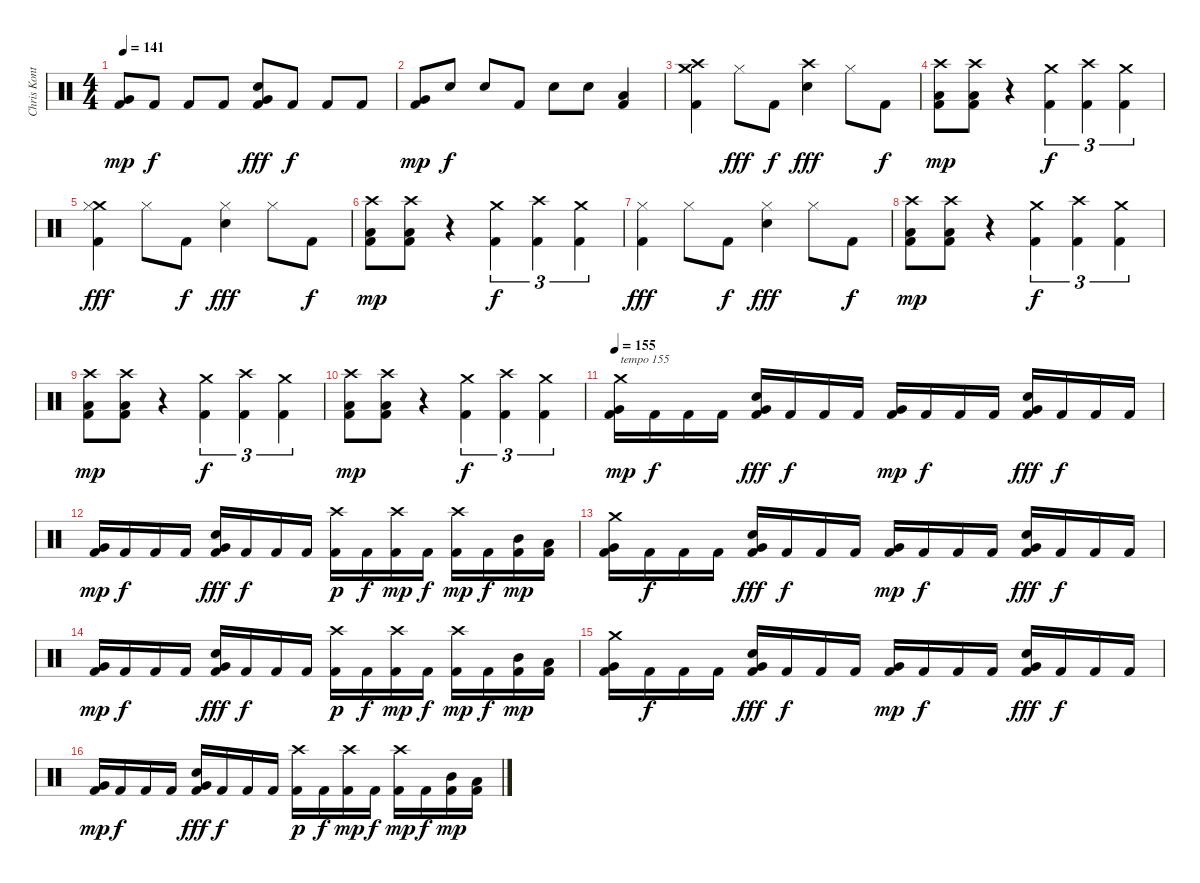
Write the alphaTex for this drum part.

\track ("Chris Kontos" "Chris Kont") {instrument percussion}
\staff {score}
\articulation defaults
\ts (4 4)
\tempo 141
\clef neutral
\ks c
("Very Low Tom (hit)" "Kick (hit) 2").8{dy mp} "Kick (hit) 2".8{dy f} "Kick (hit) 2".8 "Kick (hit) 2".8 ("Very Low Tom (hit)" "Electric Snare (hit)" "Kick (hit) 2").8{dy fff} "Kick (hit) 2".8{dy f} "Kick (hit) 2".8 "Kick (hit) 2".8 |
("Very Low Tom (hit)" "Kick (hit) 2").8{dy mp} "Electric Snare (hit)".8{dy f} "Electric Snare (hit)".8 "Kick (hit) 2".8 "Electric Snare (hit)".8 "Electric Snare (hit)".8 ("Low Tom (hit)" "Kick (hit) 2").4 |
("Crash medium (hit)" "Crash high (hit)" "Kick (hit) 2").4 "Hi-Hat (closed)".8{dy fff} "Kick (hit) 2".8{dy f} ("Crash high (hit)" "Electric Snare (hit)").4{dy fff} "Hi-Hat (closed)".8 "Kick (hit) 2".8{dy f} |
("Crash high (hit)" "Low Tom (hit)" "Kick (hit) 2").8{dy mp} ("Crash high (hit)" "Low Tom (hit)" "Kick (hit) 2").8 r.4 ("Crash medium (hit)" "Kick (hit) 2").4{tu (3 2) dy f} ("Crash high (hit)" "Kick (hit) 2").4{tu (3 2)} ("Crash medium (hit)" "Kick (hit) 2").4{tu (3 2)} |
("Crash medium (hit)" "Hi-Hat (closed)" "Kick (hit) 2").4{dy fff} "Hi-Hat (closed)".8 "Kick (hit) 2".8{dy f} ("Electric Snare (hit)" "Hi-Hat (closed)").4{dy fff} "Hi-Hat (closed)".8 "Kick (hit) 2".8{dy f} |
("Crash high (hit)" "Low Tom (hit)" "Kick (hit) 2").8{dy mp} ("Crash high (hit)" "Low Tom (hit)" "Kick (hit) 2").8 r.4 ("Crash medium (hit)" "Kick (hit) 2").4{tu (3 2) dy f} ("Crash high (hit)" "Kick (hit) 2").4{tu (3 2)} ("Crash medium (hit)" "Kick (hit) 2").4{tu (3 2)} |
("Hi-Hat (closed)" "Kick (hit) 2").4{dy fff} "Hi-Hat (closed)".8 "Kick (hit) 2".8{dy f} ("Electric Snare (hit)" "Hi-Hat (closed)").4{dy fff} "Hi-Hat (closed)".8 "Kick (hit) 2".8{dy f} |
("Crash high (hit)" "Low Tom (hit)" "Kick (hit) 2").8{dy mp} ("Crash high (hit)" "Low Tom (hit)" "Kick (hit) 2").8 r.4 ("Crash medium (hit)" "Kick (hit) 2").4{tu (3 2) dy f} ("Crash high (hit)" "Kick (hit) 2").4{tu (3 2)} ("Crash medium (hit)" "Kick (hit) 2").4{tu (3 2)} |
("Crash high (hit)" "Low Tom (hit)" "Kick (hit) 2").8{dy mp} ("Crash high (hit)" "Low Tom (hit)" "Kick (hit) 2").8 r.4 ("Crash medium (hit)" "Kick (hit) 2").4{tu (3 2) dy f} ("Crash high (hit)" "Kick (hit) 2").4{tu (3 2)} ("Crash medium (hit)" "Kick (hit) 2").4{tu (3 2)} |
("Crash high (hit)" "Low Tom (hit)" "Kick (hit) 2").8{dy mp} ("Crash high (hit)" "Low Tom (hit)" "Kick (hit) 2").8 r.4 ("Crash medium (hit)" "Kick (hit) 2").4{tu (3 2) dy f} ("Crash high (hit)" "Kick (hit) 2").4{tu (3 2)} ("Crash medium (hit)" "Kick (hit) 2").4{tu (3 2)} |
\tempo 155
("Crash medium (hit)" "Very Low Tom (hit)" "Kick (hit) 2").16{txt "tempo 155" dy mp} "Kick (hit) 2".16{dy f} "Kick (hit) 2".16 "Kick (hit) 2".16 ("Very Low Tom (hit)" "Electric Snare (hit)" "Kick (hit) 2").16{dy fff} "Kick (hit) 2".16{dy f} "Kick (hit) 2".16 "Kick (hit) 2".16 ("Very Low Tom (hit)" "Kick (hit) 2").16{dy mp} "Kick (hit) 2".16{dy f} "Kick (hit) 2".16 "Kick (hit) 2".16 ("Very Low Tom (hit)" "Electric Snare (hit)" "Kick (hit) 2").16{dy fff} "Kick (hit) 2".16{dy f} "Kick (hit) 2".16 "Kick (hit) 2".16 |
("Very Low Tom (hit)" "Kick (hit) 2").16{dy mp} "Kick (hit) 2".16{dy f} "Kick (hit) 2".16 "Kick (hit) 2".16 ("Very Low Tom (hit)" "Electric Snare (hit)" "Kick (hit) 2").16{dy fff} "Kick (hit) 2".16{dy f} "Kick (hit) 2".16 "Kick (hit) 2".16 ("Crash high (hit)" "Kick (hit) 2").16{dy p} "Kick (hit) 2".16{dy f} ("Crash high (hit)" "Kick (hit) 2").16{dy mp} "Kick (hit) 2".16{dy f} ("Crash high (hit)" "Kick (hit) 2").16{dy mp} "Kick (hit) 2".16{dy f} ("Mid Tom (hit)" "Kick (hit) 2").16{dy mp} ("Low Tom (hit)" "Kick (hit) 2").16 |
("Crash medium (hit)" "Very Low Tom (hit)" "Kick (hit) 2").16 "Kick (hit) 2".16{dy f} "Kick (hit) 2".16 "Kick (hit) 2".16 ("Very Low Tom (hit)" "Electric Snare (hit)" "Kick (hit) 2").16{dy fff} "Kick (hit) 2".16{dy f} "Kick (hit) 2".16 "Kick (hit) 2".16 ("Very Low Tom (hit)" "Kick (hit) 2").16{dy mp} "Kick (hit) 2".16{dy f} "Kick (hit) 2".16 "Kick (hit) 2".16 ("Very Low Tom (hit)" "Electric Snare (hit)" "Kick (hit) 2").16{dy fff} "Kick (hit) 2".16{dy f} "Kick (hit) 2".16 "Kick (hit) 2".16 |
("Very Low Tom (hit)" "Kick (hit) 2").16{dy mp} "Kick (hit) 2".16{dy f} "Kick (hit) 2".16 "Kick (hit) 2".16 ("Very Low Tom (hit)" "Electric Snare (hit)" "Kick (hit) 2").16{dy fff} "Kick (hit) 2".16{dy f} "Kick (hit) 2".16 "Kick (hit) 2".16 ("Crash high (hit)" "Kick (hit) 2").16{dy p} "Kick (hit) 2".16{dy f} ("Crash high (hit)" "Kick (hit) 2").16{dy mp} "Kick (hit) 2".16{dy f} ("Crash high (hit)" "Kick (hit) 2").16{dy mp} "Kick (hit) 2".16{dy f} ("Mid Tom (hit)" "Kick (hit) 2").16{dy mp} ("Low Tom (hit)" "Kick (hit) 2").16 |
("Crash medium (hit)" "Very Low Tom (hit)" "Kick (hit) 2").16 "Kick (hit) 2".16{dy f} "Kick (hit) 2".16 "Kick (hit) 2".16 ("Very Low Tom (hit)" "Electric Snare (hit)" "Kick (hit) 2").16{dy fff} "Kick (hit) 2".16{dy f} "Kick (hit) 2".16 "Kick (hit) 2".16 ("Very Low Tom (hit)" "Kick (hit) 2").16{dy mp} "Kick (hit) 2".16{dy f} "Kick (hit) 2".16 "Kick (hit) 2".16 ("Very Low Tom (hit)" "Electric Snare (hit)" "Kick (hit) 2").16{dy fff} "Kick (hit) 2".16{dy f} "Kick (hit) 2".16 "Kick (hit) 2".16 |
("Very Low Tom (hit)" "Kick (hit) 2").16{dy mp} "Kick (hit) 2".16{dy f} "Kick (hit) 2".16 "Kick (hit) 2".16 ("Very Low Tom (hit)" "Electric Snare (hit)" "Kick (hit) 2").16{dy fff} "Kick (hit) 2".16{dy f} "Kick (hit) 2".16 "Kick (hit) 2".16 ("Crash high (hit)" "Kick (hit) 2").16{dy p} "Kick (hit) 2".16{dy f} ("Crash high (hit)" "Kick (hit) 2").16{dy mp} "Kick (hit) 2".16{dy f} ("Crash high (hit)" "Kick (hit) 2").16{dy mp} "Kick (hit) 2".16{dy f} ("Mid Tom (hit)" "Kick (hit) 2").16{dy mp} ("Low Tom (hit)" "Kick (hit) 2").16
